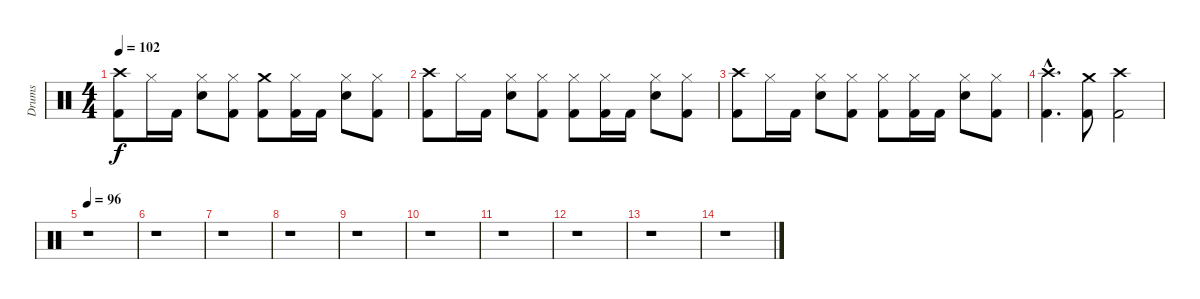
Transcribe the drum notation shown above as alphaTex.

\track ("Drums" "Drums") {instrument percussion}
\staff {score}
\articulation defaults
\ts (4 4)
\tempo 102
\clef neutral
\ks c
("Kick (hit) 2" "Crash high (hit)").8{dy f} "Hi-Hat (closed)".16 "Kick (hit) 2".16 ("Snare (hit) 2" "Hi-Hat (closed)").8 ("Kick (hit) 2" "Hi-Hat (closed)").8 ("Kick (hit) 2" "Crash medium (hit)").8 ("Kick (hit) 2" "Hi-Hat (closed)").16 "Kick (hit) 2".16 ("Snare (hit) 2" "Hi-Hat (closed)").8 ("Kick (hit) 2" "Hi-Hat (closed)").8 |
("Kick (hit) 2" "Crash high (hit)").8 "Hi-Hat (closed)".16 "Kick (hit) 2".16 ("Snare (hit) 2" "Hi-Hat (closed)").8 ("Kick (hit) 2" "Hi-Hat (closed)").8 ("Kick (hit) 2" "Hi-Hat (closed)").8 ("Kick (hit) 2" "Hi-Hat (closed)").16 "Kick (hit) 2".16 ("Snare (hit) 2" "Hi-Hat (closed)").8 ("Kick (hit) 2" "Hi-Hat (closed)").8 |
("Kick (hit) 2" "Crash high (hit)").8 "Hi-Hat (closed)".16 "Kick (hit) 2".16 ("Snare (hit) 2" "Hi-Hat (closed)").8 ("Kick (hit) 2" "Hi-Hat (closed)").8 ("Kick (hit) 2" "Hi-Hat (closed)").8 ("Kick (hit) 2" "Hi-Hat (closed)").16 "Kick (hit) 2".16 ("Snare (hit) 2" "Hi-Hat (closed)").8 ("Kick (hit) 2" "Hi-Hat (closed)").8 |
("Kick (hit) 2"{hac} "Crash high (hit)"{hac}).4{d} ("Kick (hit) 2" "Crash medium (hit)").8 ("Kick (hit) 2" "Crash high (hit)").2 |
\tempo 96
r.1 |
r.1 |
r.1 |
r.1 |
r.1 |
r.1 |
r.1 |
r.1 |
r.1 |
r.1
